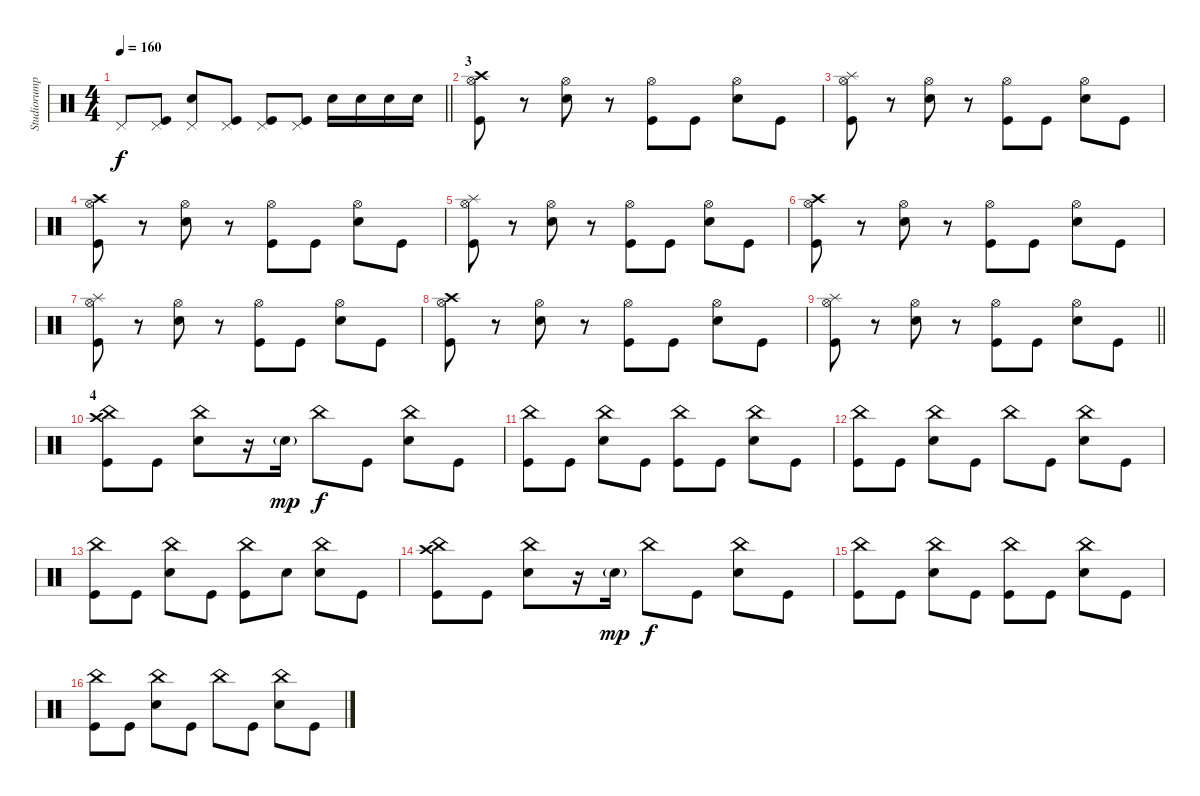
\track ("Studiorumpali" "Studiorump") {instrument percussion}
\staff {score}
\articulation defaults
\ts (4 4)
\tempo 160
\clef neutral
\barLineRight lightlight
\ks c "Pedal Hi-Hat (hit)".8{dy f}
("Pedal Hi-Hat (hit)" "Kick (hit)").8 ("Pedal Hi-Hat (hit)" "Snare (hit) 2").8 ("Pedal Hi-Hat (hit)" "Kick (hit)").8 ("Pedal Hi-Hat (hit)" "Kick (hit)").8 ("Pedal Hi-Hat (hit)" "Kick (hit)").8 "Snare (hit) 2".16 "Snare (hit) 2".16 "Snare (hit) 2".16 "Snare (hit) 2".16 |
\section ("" "3")
("Crash high (hit)" "Hi-Hat (open)" "Kick (hit)").8 r.8 ("Hi-Hat (open)" "Snare (hit) 2").8 r.8 ("Hi-Hat (open)" "Kick (hit)").8 "Kick (hit)".8 ("Hi-Hat (open)" "Snare (hit) 2").8 "Kick (hit)".8 |
("Splash (hit)" "Hi-Hat (open)" "Kick (hit)").8 r.8 ("Hi-Hat (open)" "Snare (hit) 2").8 r.8 ("Hi-Hat (open)" "Kick (hit)").8 "Kick (hit)".8 ("Hi-Hat (open)" "Snare (hit) 2").8 "Kick (hit)".8 |
("Crash high (hit)" "Hi-Hat (open)" "Kick (hit)").8 r.8 ("Hi-Hat (open)" "Snare (hit) 2").8 r.8 ("Hi-Hat (open)" "Kick (hit)").8 "Kick (hit)".8 ("Hi-Hat (open)" "Snare (hit) 2").8 "Kick (hit)".8 |
("Splash (hit)" "Hi-Hat (open)" "Kick (hit)").8 r.8 ("Hi-Hat (open)" "Snare (hit) 2").8 r.8 ("Hi-Hat (open)" "Kick (hit)").8 "Kick (hit)".8 ("Hi-Hat (open)" "Snare (hit) 2").8 "Kick (hit)".8 |
("Crash high (hit)" "Hi-Hat (open)" "Kick (hit)").8 r.8 ("Hi-Hat (open)" "Snare (hit) 2").8 r.8 ("Hi-Hat (open)" "Kick (hit)").8 "Kick (hit)".8 ("Hi-Hat (open)" "Snare (hit) 2").8 "Kick (hit)".8 |
("Splash (hit)" "Hi-Hat (open)" "Kick (hit)").8 r.8 ("Hi-Hat (open)" "Snare (hit) 2").8 r.8 ("Hi-Hat (open)" "Kick (hit)").8 "Kick (hit)".8 ("Hi-Hat (open)" "Snare (hit) 2").8 "Kick (hit)".8 |
("Crash high (hit)" "Hi-Hat (open)" "Kick (hit)").8 r.8 ("Hi-Hat (open)" "Snare (hit) 2").8 r.8 ("Hi-Hat (open)" "Kick (hit)").8 "Kick (hit)".8 ("Hi-Hat (open)" "Snare (hit) 2").8 "Kick (hit)".8 |
\barLineRight lightlight
("Splash (hit)" "Hi-Hat (open)" "Kick (hit)").8 r.8 ("Hi-Hat (open)" "Snare (hit) 2").8 r.8 ("Hi-Hat (open)" "Kick (hit)").8 "Kick (hit)".8 ("Hi-Hat (open)" "Snare (hit) 2").8 "Kick (hit)".8 |
\section ("" "4")
("Crash high (hit)" "China (hit)" "Kick (hit)").8 "Kick (hit)".8 ("China (hit)" "Snare (hit) 2").8 r.16 "Snare (hit) 2"{g}.16{dy mp} "China (hit)".8{dy f} "Kick (hit)".8 ("China (hit)" "Snare (hit) 2").8 "Kick (hit)".8 |
("China (hit)" "Kick (hit)").8 "Kick (hit)".8 ("China (hit)" "Snare (hit) 2").8 "Kick (hit)".8 ("China (hit)" "Kick (hit)").8 "Kick (hit)".8 ("China (hit)" "Snare (hit) 2").8 "Kick (hit)".8 |
("China (hit)" "Kick (hit)").8 "Kick (hit)".8 ("China (hit)" "Snare (hit) 2").8 "Kick (hit)".8 "China (hit)".8 "Kick (hit)".8 ("China (hit)" "Snare (hit) 2").8 "Kick (hit)".8 |
("China (hit)" "Kick (hit)").8 "Kick (hit)".8 ("China (hit)" "Snare (hit) 2").8 "Kick (hit)".8 ("China (hit)" "Kick (hit)").8 "Snare (hit) 2".8 ("China (hit)" "Snare (hit) 2").8 "Kick (hit)".8 |
("Crash high (hit)" "China (hit)" "Kick (hit)").8 "Kick (hit)".8 ("China (hit)" "Snare (hit) 2").8 r.16 "Snare (hit) 2"{g}.16{dy mp} "China (hit)".8{dy f} "Kick (hit)".8 ("China (hit)" "Snare (hit) 2").8 "Kick (hit)".8 |
("China (hit)" "Kick (hit)").8 "Kick (hit)".8 ("China (hit)" "Snare (hit) 2").8 "Kick (hit)".8 ("China (hit)" "Kick (hit)").8 "Kick (hit)".8 ("China (hit)" "Snare (hit) 2").8 "Kick (hit)".8 |
("China (hit)" "Kick (hit)").8 "Kick (hit)".8 ("China (hit)" "Snare (hit) 2").8 "Kick (hit)".8 "China (hit)".8 "Kick (hit)".8 ("China (hit)" "Snare (hit) 2").8 "Kick (hit)".8
